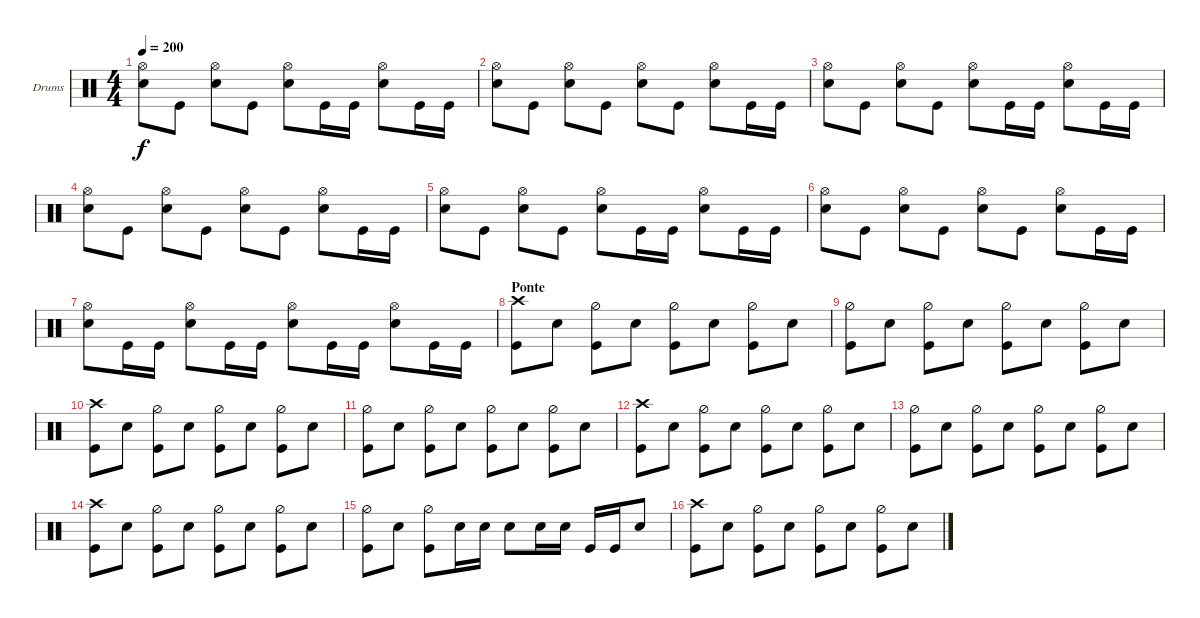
\defaultSystemsLayout 4
\bracketExtendMode groupsimilarinstruments
\firstSystemTrackNameOrientation horizontal
\otherSystemsTrackNameOrientation horizontal
\track ("Drumkit" "Drums") {instrument percussion}
\staff {score}
\articulation defaults
\ts (4 4)
\tempo 200
\clef neutral
\ks c
("Snare (hit) 2" "Hi-Hat (open)").8{dy f} "Kick (hit)".8 ("Hi-Hat (open)" "Snare (hit) 2").8 "Kick (hit)".8 ("Snare (hit) 2" "Hi-Hat (open)").8 "Kick (hit)".16 "Kick (hit)".16 ("Snare (hit) 2" "Hi-Hat (open)").8 "Kick (hit)".16 "Kick (hit)".16 |
("Hi-Hat (open)" "Snare (hit) 2").8 "Kick (hit)".8 ("Snare (hit) 2" "Hi-Hat (open)").8 "Kick (hit)".8 ("Snare (hit) 2" "Hi-Hat (open)").8 "Kick (hit)".8 ("Snare (hit) 2" "Hi-Hat (open)").8 "Kick (hit)".16 "Kick (hit)".16 |
("Snare (hit) 2" "Hi-Hat (open)").8 "Kick (hit)".8 ("Hi-Hat (open)" "Snare (hit) 2").8 "Kick (hit)".8 ("Snare (hit) 2" "Hi-Hat (open)").8 "Kick (hit)".16 "Kick (hit)".16 ("Snare (hit) 2" "Hi-Hat (open)").8 "Kick (hit)".16 "Kick (hit)".16 |
("Hi-Hat (open)" "Snare (hit) 2").8 "Kick (hit)".8 ("Snare (hit) 2" "Hi-Hat (open)").8 "Kick (hit)".8 ("Snare (hit) 2" "Hi-Hat (open)").8 "Kick (hit)".8 ("Snare (hit) 2" "Hi-Hat (open)").8 "Kick (hit)".16 "Kick (hit)".16 |
("Snare (hit) 2" "Hi-Hat (open)").8 "Kick (hit)".8 ("Hi-Hat (open)" "Snare (hit) 2").8 "Kick (hit)".8 ("Snare (hit) 2" "Hi-Hat (open)").8 "Kick (hit)".16 "Kick (hit)".16 ("Snare (hit) 2" "Hi-Hat (open)").8 "Kick (hit)".16 "Kick (hit)".16 |
("Hi-Hat (open)" "Snare (hit) 2").8 "Kick (hit)".8 ("Snare (hit) 2" "Hi-Hat (open)").8 "Kick (hit)".8 ("Snare (hit) 2" "Hi-Hat (open)").8 "Kick (hit)".8 ("Snare (hit) 2" "Hi-Hat (open)").8 "Kick (hit)".16 "Kick (hit)".16 |
("Snare (hit) 2" "Hi-Hat (open)").8 "Kick (hit)".16 "Kick (hit)".16 ("Snare (hit) 2" "Hi-Hat (open)").8 "Kick (hit)".16 "Kick (hit)".16 ("Snare (hit) 2" "Hi-Hat (open)").8 "Kick (hit)".16 "Kick (hit)".16 ("Snare (hit) 2" "Hi-Hat (open)").8 "Kick (hit)".16 "Kick (hit)".16 |
\section ("" "Ponte")
("Kick (hit)" "Crash high (hit)").8 "Snare (hit) 2".8 ("Kick (hit)" "Hi-Hat (half)").8 "Snare (hit) 2".8 ("Kick (hit)" "Hi-Hat (half)").8 "Snare (hit) 2".8 ("Kick (hit)" "Hi-Hat (half)").8 "Snare (hit) 2".8 |
("Kick (hit)" "Hi-Hat (half)").8 "Snare (hit) 2".8 ("Kick (hit)" "Hi-Hat (half)").8 "Snare (hit) 2".8 ("Kick (hit)" "Hi-Hat (half)").8 "Snare (hit) 2".8 ("Kick (hit)" "Hi-Hat (half)").8 "Snare (hit) 2".8 |
("Kick (hit)" "Crash high (hit)").8 "Snare (hit) 2".8 ("Kick (hit)" "Hi-Hat (half)").8 "Snare (hit) 2".8 ("Kick (hit)" "Hi-Hat (half)").8 "Snare (hit) 2".8 ("Kick (hit)" "Hi-Hat (half)").8 "Snare (hit) 2".8 |
("Kick (hit)" "Hi-Hat (half)").8 "Snare (hit) 2".8 ("Kick (hit)" "Hi-Hat (half)").8 "Snare (hit) 2".8 ("Kick (hit)" "Hi-Hat (half)").8 "Snare (hit) 2".8 ("Kick (hit)" "Hi-Hat (half)").8 "Snare (hit) 2".8 |
("Kick (hit)" "Crash high (hit)").8 "Snare (hit) 2".8 ("Kick (hit)" "Hi-Hat (half)").8 "Snare (hit) 2".8 ("Kick (hit)" "Hi-Hat (half)").8 "Snare (hit) 2".8 ("Kick (hit)" "Hi-Hat (half)").8 "Snare (hit) 2".8 |
("Kick (hit)" "Hi-Hat (half)").8 "Snare (hit) 2".8 ("Kick (hit)" "Hi-Hat (half)").8 "Snare (hit) 2".8 ("Kick (hit)" "Hi-Hat (half)").8 "Snare (hit) 2".8 ("Kick (hit)" "Hi-Hat (half)").8 "Snare (hit) 2".8 |
("Kick (hit)" "Crash high (hit)").8 "Snare (hit) 2".8 ("Kick (hit)" "Hi-Hat (half)").8 "Snare (hit) 2".8 ("Kick (hit)" "Hi-Hat (half)").8 "Snare (hit) 2".8 ("Kick (hit)" "Hi-Hat (half)").8 "Snare (hit) 2".8 |
("Kick (hit)" "Hi-Hat (half)").8 "Snare (hit) 2".8 ("Kick (hit)" "Hi-Hat (half)").8 "Snare (hit) 2".16 "Snare (hit) 2".16 "Snare (hit) 2".8 "Snare (hit) 2".16 "Snare (hit) 2".16 "Kick (hit)".16 "Kick (hit)".16 "Snare (hit) 2".8 |
("Kick (hit)" "Crash high (hit)").8 "Snare (hit) 2".8 ("Kick (hit)" "Hi-Hat (half)").8 "Snare (hit) 2".8 ("Kick (hit)" "Hi-Hat (half)").8 "Snare (hit) 2".8 ("Kick (hit)" "Hi-Hat (half)").8 "Snare (hit) 2".8
